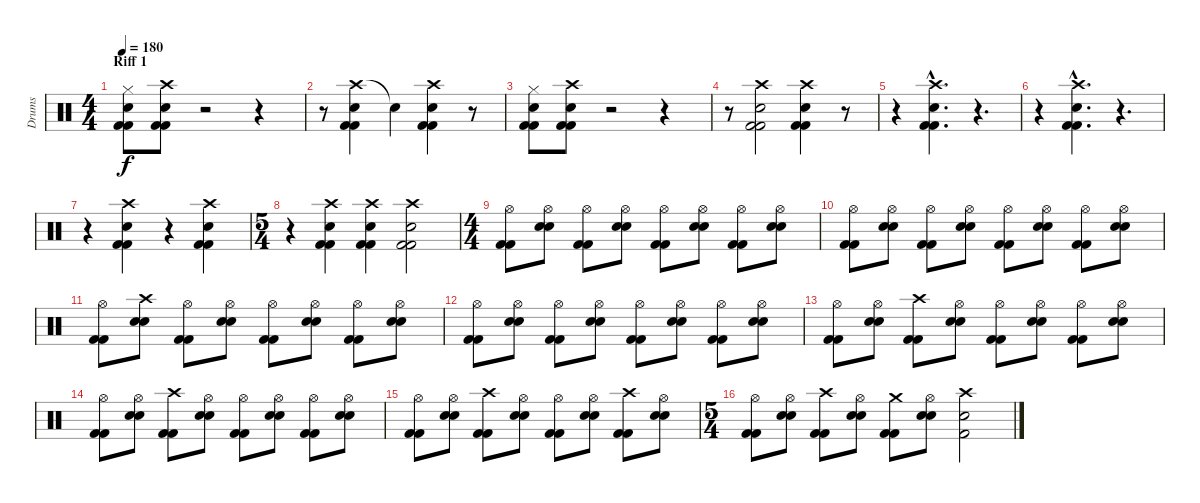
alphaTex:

\track ("Drums" "Drums") {instrument percussion}
\staff {score}
\articulation defaults
\ts (4 4)
\section ("" "Riff 1")
\tempo 180
\clef neutral
\ks c
("Hi-Hat (closed)" "Snare (hit) 2" "Kick (hit) 2" "Kick (hit) 2").8{dy f} ("Crash high (hit)" "Snare (hit) 2" "Kick (hit) 2" "Kick (hit) 2").8 r.2 r.4 |
r.8 ("Crash high (hit)" "Snare (hit) 2" "Kick (hit) 2" "Kick (hit) 2").4 "Snare (hit)"{t}.4 ("Crash high (hit)" "Snare (hit) 2" "Kick (hit) 2" "Kick (hit) 2").4 r.8 |
("Hi-Hat (closed)" "Snare (hit) 2" "Kick (hit) 2" "Kick (hit) 2").8 ("Crash high (hit)" "Snare (hit) 2" "Kick (hit) 2" "Kick (hit) 2").8 r.2 r.4 |
r.8 ("Crash high (hit)" "Snare (hit) 2" "Kick (hit) 2" "Kick (hit) 2").2 ("Crash high (hit)" "Snare (hit) 2" "Kick (hit) 2" "Kick (hit) 2").4 r.8 |
r.4 ("Crash high (hit)"{hac} "Snare (hit) 2"{hac} "Kick (hit) 2"{hac} "Kick (hit) 2"{hac}).4{d} r.4{d} |
r.4 ("Crash high (hit)"{hac} "Snare (hit) 2"{hac} "Kick (hit) 2"{hac} "Kick (hit) 2"{hac}).4{d} r.4{d} |
r.4 ("Crash high (hit)" "Snare (hit) 2" "Kick (hit) 2" "Kick (hit) 2").4 r.4 ("Crash high (hit)" "Snare (hit) 2" "Kick (hit) 2" "Kick (hit) 2").4 |
\ts (5 4)
r.4 ("Crash high (hit)" "Snare (hit) 2" "Kick (hit) 2" "Kick (hit) 2").4 ("Crash high (hit)" "Snare (hit) 2" "Kick (hit) 2" "Kick (hit) 2").4 ("Crash high (hit)" "Snare (hit) 2" "Kick (hit) 2" "Kick (hit) 2").2 |
\ts (4 4)
("Hi-Hat (open)" "Kick (hit) 2" "Kick (hit) 2").8 ("Hi-Hat (open)" "Snare (hit) 2" "Snare (hit) 2").8 ("Hi-Hat (open)" "Kick (hit) 2" "Kick (hit) 2").8 ("Hi-Hat (open)" "Snare (hit) 2" "Snare (hit) 2").8 ("Hi-Hat (open)" "Kick (hit) 2" "Kick (hit) 2").8 ("Hi-Hat (open)" "Snare (hit) 2" "Snare (hit) 2").8 ("Hi-Hat (open)" "Kick (hit) 2" "Kick (hit) 2").8 ("Hi-Hat (open)" "Snare (hit) 2" "Snare (hit) 2").8 |
("Hi-Hat (open)" "Kick (hit) 2" "Kick (hit) 2").8 ("Hi-Hat (open)" "Snare (hit) 2" "Snare (hit) 2").8 ("Hi-Hat (open)" "Kick (hit) 2" "Kick (hit) 2").8 ("Hi-Hat (open)" "Snare (hit) 2" "Snare (hit) 2").8 ("Hi-Hat (open)" "Kick (hit) 2" "Kick (hit) 2").8 ("Hi-Hat (open)" "Snare (hit) 2" "Snare (hit) 2").8 ("Hi-Hat (open)" "Kick (hit) 2" "Kick (hit) 2").8 ("Hi-Hat (open)" "Snare (hit) 2" "Snare (hit) 2").8 |
("Hi-Hat (open)" "Kick (hit) 2" "Kick (hit) 2").8 ("Crash high (hit)" "Snare (hit) 2" "Snare (hit) 2").8 ("Hi-Hat (open)" "Kick (hit) 2" "Kick (hit) 2").8 ("Hi-Hat (open)" "Snare (hit) 2" "Snare (hit) 2").8 ("Hi-Hat (open)" "Kick (hit) 2" "Kick (hit) 2").8 ("Hi-Hat (open)" "Snare (hit) 2" "Snare (hit) 2").8 ("Hi-Hat (open)" "Kick (hit) 2" "Kick (hit) 2").8 ("Hi-Hat (open)" "Snare (hit) 2" "Snare (hit) 2").8 |
("Hi-Hat (open)" "Kick (hit) 2" "Kick (hit) 2").8 ("Hi-Hat (open)" "Snare (hit) 2" "Snare (hit) 2").8 ("Hi-Hat (open)" "Kick (hit) 2" "Kick (hit) 2").8 ("Hi-Hat (open)" "Snare (hit) 2" "Snare (hit) 2").8 ("Hi-Hat (open)" "Kick (hit) 2" "Kick (hit) 2").8 ("Hi-Hat (open)" "Snare (hit) 2" "Snare (hit) 2").8 ("Hi-Hat (open)" "Kick (hit) 2" "Kick (hit) 2").8 ("Hi-Hat (open)" "Snare (hit) 2" "Snare (hit) 2").8 |
("Hi-Hat (open)" "Kick (hit) 2" "Kick (hit) 2").8 ("Hi-Hat (open)" "Snare (hit) 2" "Snare (hit) 2").8 ("Crash high (hit)" "Kick (hit) 2" "Kick (hit) 2").8 ("Hi-Hat (open)" "Snare (hit) 2" "Snare (hit) 2").8 ("Hi-Hat (open)" "Kick (hit) 2" "Kick (hit) 2").8 ("Hi-Hat (open)" "Snare (hit) 2" "Snare (hit) 2").8 ("Hi-Hat (open)" "Kick (hit) 2" "Kick (hit) 2").8 ("Hi-Hat (open)" "Snare (hit) 2" "Snare (hit) 2").8 |
("Hi-Hat (open)" "Kick (hit) 2" "Kick (hit) 2").8 ("Hi-Hat (open)" "Snare (hit) 2" "Snare (hit) 2").8 ("Crash high (hit)" "Kick (hit) 2" "Kick (hit) 2").8 ("Hi-Hat (open)" "Snare (hit) 2" "Snare (hit) 2").8 ("Hi-Hat (open)" "Kick (hit) 2" "Kick (hit) 2").8 ("Hi-Hat (open)" "Snare (hit) 2" "Snare (hit) 2").8 ("Hi-Hat (open)" "Kick (hit) 2" "Kick (hit) 2").8 ("Hi-Hat (open)" "Snare (hit) 2" "Snare (hit) 2").8 |
("Hi-Hat (open)" "Kick (hit) 2" "Kick (hit) 2").8 ("Hi-Hat (open)" "Snare (hit) 2" "Snare (hit) 2").8 ("Crash high (hit)" "Kick (hit) 2" "Kick (hit) 2").8 ("Hi-Hat (open)" "Snare (hit) 2" "Snare (hit) 2").8 ("Hi-Hat (open)" "Kick (hit) 2" "Kick (hit) 2").8 ("Hi-Hat (open)" "Snare (hit) 2" "Snare (hit) 2").8 ("Crash high (hit)" "Kick (hit) 2" "Kick (hit) 2").8 ("Hi-Hat (open)" "Snare (hit) 2" "Snare (hit) 2").8 |
\ts (5 4)
("Hi-Hat (open)" "Kick (hit) 2" "Kick (hit) 2").8 ("Hi-Hat (open)" "Snare (hit) 2" "Snare (hit) 2").8 ("Crash high (hit)" "Kick (hit) 2" "Kick (hit) 2").8 ("Hi-Hat (open)" "Snare (hit) 2" "Snare (hit) 2").8 ("Crash medium (hit)" "Kick (hit) 2" "Kick (hit) 2").8 ("Hi-Hat (open)" "Snare (hit) 2" "Snare (hit) 2").8 ("Crash high (hit)" "Snare (hit) 2" "Kick (hit) 2").2
